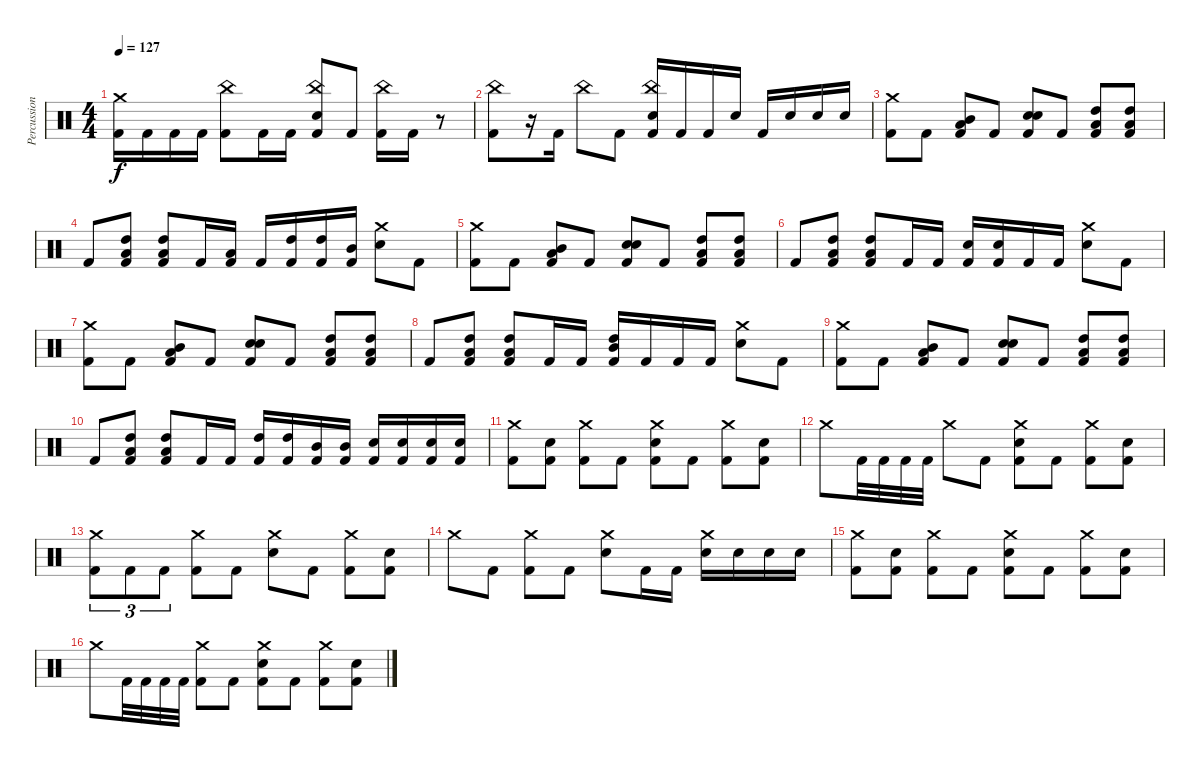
\track ("Percussion" "Percussion") {instrument percussion}
\staff {score}
\articulation defaults
\ts (4 4)
\tempo 127
\clef neutral
\ks c
("Crash medium (hit)" "Kick (hit) 2").16{dy f} "Kick (hit) 2".16 "Kick (hit) 2".16 "Kick (hit) 2".16 ("China (hit)" "Kick (hit) 2").8 "Kick (hit) 2".16 "Kick (hit) 2".16 ("China (hit)" "Electric Snare (hit)" "Kick (hit) 2").8 "Kick (hit) 2".8 ("China (hit)" "Kick (hit) 2").16 "Kick (hit) 2".16 r.8 |
("China (hit)" "Kick (hit) 2").8 r.16 "Kick (hit) 2".16 "China (hit)".8 "Kick (hit) 2".8 ("China (hit)" "Electric Snare (hit)" "Kick (hit) 2").16 "Kick (hit) 2".16 "Kick (hit) 2".16 "Electric Snare (hit)".16 "Kick (hit) 2".16 "Electric Snare (hit)".16 "Electric Snare (hit)".16 "Electric Snare (hit)".16 |
("Crash medium (hit)" "Kick (hit) 2").8 "Kick (hit) 2".8 ("Low Tom (hit)" "Mid Tom (hit)" "Kick (hit) 2").8 "Kick (hit) 2".8 ("Electric Snare (hit)" "Electric Snare (hit)" "Kick (hit) 2").8 "Kick (hit) 2".8 ("Low Tom (hit)" "High Tom (hit)" "Kick (hit) 2").8 ("Low Tom (hit)" "High Tom (hit)" "Kick (hit) 2").8 |
"Kick (hit) 2".8 ("Low Tom (hit)" "High Tom (hit)" "Kick (hit) 2").8 ("Low Tom (hit)" "High Tom (hit)" "Kick (hit) 2").8 "Kick (hit) 2".16 ("Low Tom (hit)" "Kick (hit) 2").16 "Kick (hit) 2".16 ("High Tom (hit)" "Kick (hit) 2").16 ("High Tom (hit)" "Kick (hit) 2").16 ("Mid Tom (hit)" "Kick (hit) 2").16 ("Crash medium (hit)" "Electric Snare (hit)").8 "Kick (hit) 2".8 |
("Crash medium (hit)" "Kick (hit) 2").8 "Kick (hit) 2".8 ("Low Tom (hit)" "Mid Tom (hit)" "Kick (hit) 2").8 "Kick (hit) 2".8 ("Electric Snare (hit)" "Electric Snare (hit)" "Kick (hit) 2").8 "Kick (hit) 2".8 ("Low Tom (hit)" "High Tom (hit)" "Kick (hit) 2").8 ("Low Tom (hit)" "High Tom (hit)" "Kick (hit) 2").8 |
"Kick (hit) 2".8 ("Low Tom (hit)" "High Tom (hit)" "Kick (hit) 2").8 ("Low Tom (hit)" "High Tom (hit)" "Kick (hit) 2").8 "Kick (hit) 2".16 "Kick (hit) 2".16 ("Electric Snare (hit)" "Kick (hit) 2").16 ("Electric Snare (hit)" "Kick (hit) 2").16 "Kick (hit) 2".16 "Kick (hit) 2".16 ("Crash medium (hit)" "Electric Snare (hit)").8 "Kick (hit) 2".8 |
("Crash medium (hit)" "Kick (hit) 2").8 "Kick (hit) 2".8 ("Low Tom (hit)" "Mid Tom (hit)" "Kick (hit) 2").8 "Kick (hit) 2".8 ("Electric Snare (hit)" "Electric Snare (hit)" "Kick (hit) 2").8 "Kick (hit) 2".8 ("Low Tom (hit)" "High Tom (hit)" "Kick (hit) 2").8 ("Low Tom (hit)" "High Tom (hit)" "Kick (hit) 2").8 |
"Kick (hit) 2".8 ("Low Tom (hit)" "High Tom (hit)" "Kick (hit) 2").8 ("Low Tom (hit)" "High Tom (hit)" "Kick (hit) 2").8 "Kick (hit) 2".16 "Kick (hit) 2".16 ("High Tom (hit)" "Mid Tom (hit)" "Kick (hit) 2").16 "Kick (hit) 2".16 "Kick (hit) 2".16 "Kick (hit) 2".16 ("Crash medium (hit)" "Electric Snare (hit)").8 "Kick (hit) 2".8 |
("Crash medium (hit)" "Kick (hit) 2").8 "Kick (hit) 2".8 ("Low Tom (hit)" "Mid Tom (hit)" "Kick (hit) 2").8 "Kick (hit) 2".8 ("Electric Snare (hit)" "Electric Snare (hit)" "Kick (hit) 2").8 "Kick (hit) 2".8 ("Low Tom (hit)" "High Tom (hit)" "Kick (hit) 2").8 ("Low Tom (hit)" "High Tom (hit)" "Kick (hit) 2").8 |
"Kick (hit) 2".8 ("Low Tom (hit)" "High Tom (hit)" "Kick (hit) 2").8 ("Low Tom (hit)" "High Tom (hit)" "Kick (hit) 2").8 "Kick (hit) 2".16 "Kick (hit) 2".16 ("High Tom (hit)" "Kick (hit) 2").16 ("High Tom (hit)" "Kick (hit) 2").16 ("Mid Tom (hit)" "Kick (hit) 2").16 ("Mid Tom (hit)" "Kick (hit) 2").16 ("Electric Snare (hit)" "Kick (hit) 2").16 ("Electric Snare (hit)" "Kick (hit) 2").16 ("Electric Snare (hit)" "Kick (hit) 2").16 ("Electric Snare (hit)" "Kick (hit) 2").16 |
("Crash medium (hit)" "Kick (hit) 2").8 ("Electric Snare (hit)" "Kick (hit) 2").8 ("Crash medium (hit)" "Kick (hit) 2").8 "Kick (hit) 2".8 ("Crash medium (hit)" "Electric Snare (hit)" "Kick (hit) 2").8 "Kick (hit) 2".8 ("Crash medium (hit)" "Kick (hit) 2").8 ("Electric Snare (hit)" "Kick (hit) 2").8 |
"Crash medium (hit)".8 "Kick (hit) 2".32 "Kick (hit) 2".32 "Kick (hit) 2".32 "Kick (hit) 2".32 "Crash medium (hit)".8 "Kick (hit) 2".8 ("Crash medium (hit)" "Electric Snare (hit)" "Kick (hit) 2").8 "Kick (hit) 2".8 ("Crash medium (hit)" "Kick (hit) 2").8 ("Electric Snare (hit)" "Kick (hit) 2").8 |
("Crash medium (hit)" "Kick (hit) 2").8{tu (3 2)} "Kick (hit) 2".8{tu (3 2)} "Kick (hit) 2".8{tu (3 2)} ("Crash medium (hit)" "Kick (hit) 2").8 "Kick (hit) 2".8 ("Crash medium (hit)" "Electric Snare (hit)").8 "Kick (hit) 2".8 ("Crash medium (hit)" "Kick (hit) 2").8 ("Electric Snare (hit)" "Kick (hit) 2").8 |
"Crash medium (hit)".8 "Kick (hit) 2".8 ("Crash medium (hit)" "Kick (hit) 2").8 "Kick (hit) 2".8 ("Crash medium (hit)" "Electric Snare (hit)").8 "Kick (hit) 2".16 "Kick (hit) 2".16 ("Crash medium (hit)" "Electric Snare (hit)").16 "Electric Snare (hit)".16 "Electric Snare (hit)".16 "Electric Snare (hit)".16 |
("Crash medium (hit)" "Kick (hit) 2").8 ("Electric Snare (hit)" "Kick (hit) 2").8 ("Crash medium (hit)" "Kick (hit) 2").8 "Kick (hit) 2".8 ("Crash medium (hit)" "Electric Snare (hit)" "Kick (hit) 2").8 "Kick (hit) 2".8 ("Crash medium (hit)" "Kick (hit) 2").8 ("Electric Snare (hit)" "Kick (hit) 2").8 |
"Crash medium (hit)".8 "Kick (hit) 2".32 "Kick (hit) 2".32 "Kick (hit) 2".32 "Kick (hit) 2".32 ("Crash medium (hit)" "Kick (hit) 2").8 "Kick (hit) 2".8 ("Crash medium (hit)" "Electric Snare (hit)" "Kick (hit) 2").8 "Kick (hit) 2".8 ("Crash medium (hit)" "Kick (hit) 2").8 ("Electric Snare (hit)" "Kick (hit) 2").8
